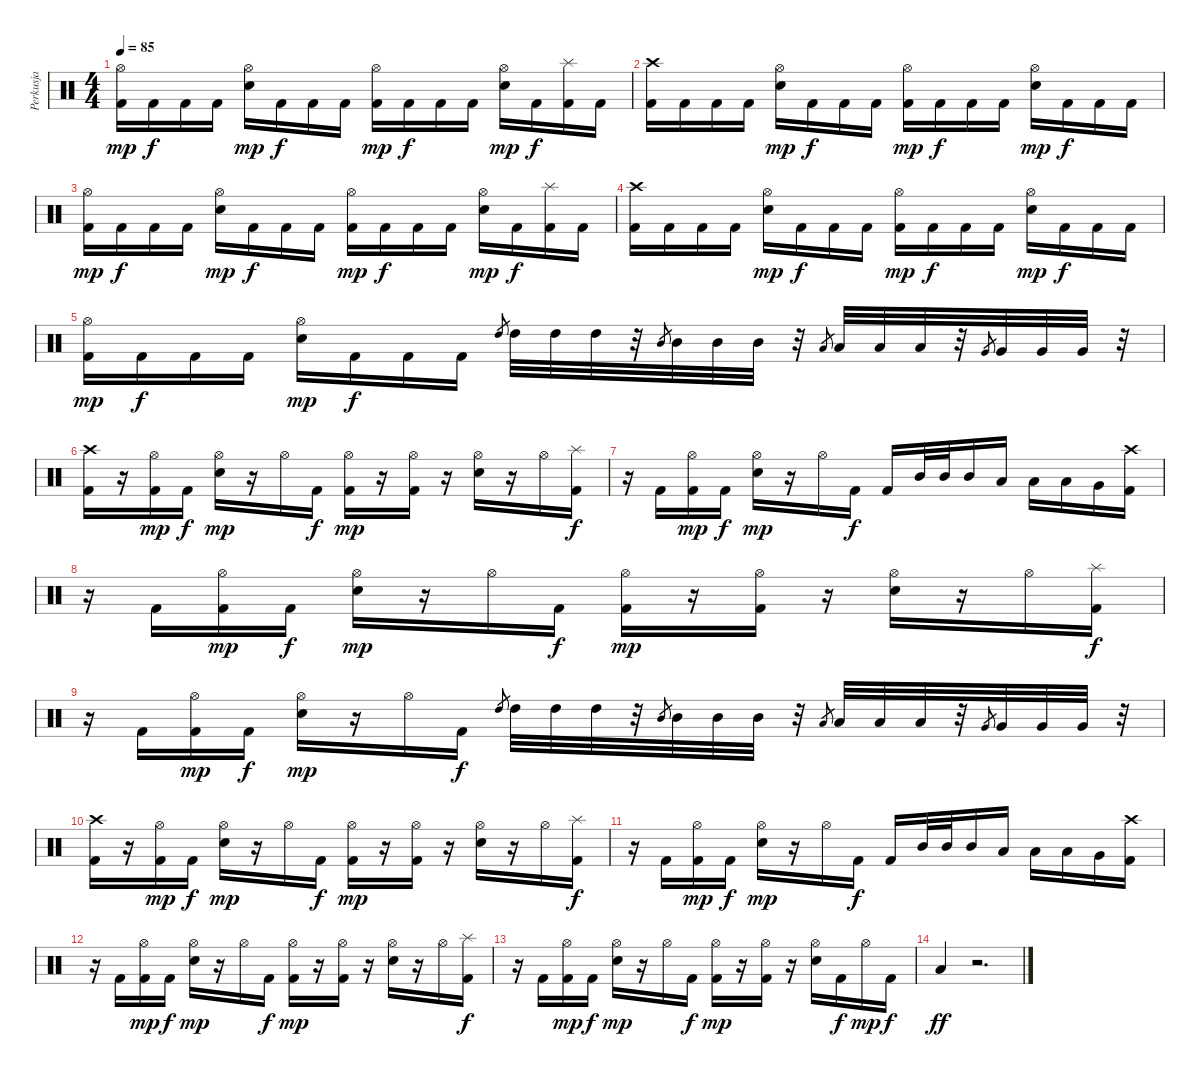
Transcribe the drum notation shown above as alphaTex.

\track ("Perkusja" "Perkusja") {instrument percussion}
\staff {score}
\articulation defaults
\ts (4 4)
\tempo 85
\clef neutral
\ks c
("Hi-Hat (open)" "Kick (hit) 2").16{dy mp} "Kick (hit) 2".16{dy f} "Kick (hit) 2".16 "Kick (hit) 2".16 ("Electric Snare (hit)" "Hi-Hat (open)").16{dy mp} "Kick (hit) 2".16{dy f} "Kick (hit) 2".16 "Kick (hit) 2".16 ("Hi-Hat (open)" "Kick (hit) 2").16{dy mp} "Kick (hit) 2".16{dy f} "Kick (hit) 2".16 "Kick (hit) 2".16 ("Electric Snare (hit)" "Hi-Hat (open)").16{dy mp} "Kick (hit) 2".16{dy f} ("Splash (hit)" "Kick (hit) 2").16 "Kick (hit) 2".16 |
("Crash high (hit)" "Kick (hit) 2").16 "Kick (hit) 2".16 "Kick (hit) 2".16 "Kick (hit) 2".16 ("Electric Snare (hit)" "Hi-Hat (open)").16{dy mp} "Kick (hit) 2".16{dy f} "Kick (hit) 2".16 "Kick (hit) 2".16 ("Hi-Hat (open)" "Kick (hit) 2").16{dy mp} "Kick (hit) 2".16{dy f} "Kick (hit) 2".16 "Kick (hit) 2".16 ("Electric Snare (hit)" "Hi-Hat (open)").16{dy mp} "Kick (hit) 2".16{dy f} "Kick (hit) 2".16 "Kick (hit) 2".16 |
("Hi-Hat (open)" "Kick (hit) 2").16{dy mp} "Kick (hit) 2".16{dy f} "Kick (hit) 2".16 "Kick (hit) 2".16 ("Electric Snare (hit)" "Hi-Hat (open)").16{dy mp} "Kick (hit) 2".16{dy f} "Kick (hit) 2".16 "Kick (hit) 2".16 ("Hi-Hat (open)" "Kick (hit) 2").16{dy mp} "Kick (hit) 2".16{dy f} "Kick (hit) 2".16 "Kick (hit) 2".16 ("Electric Snare (hit)" "Hi-Hat (open)").16{dy mp} "Kick (hit) 2".16{dy f} ("Splash (hit)" "Kick (hit) 2").16 "Kick (hit) 2".16 |
("Crash high (hit)" "Kick (hit) 2").16 "Kick (hit) 2".16 "Kick (hit) 2".16 "Kick (hit) 2".16 ("Electric Snare (hit)" "Hi-Hat (open)").16{dy mp} "Kick (hit) 2".16{dy f} "Kick (hit) 2".16 "Kick (hit) 2".16 ("Hi-Hat (open)" "Kick (hit) 2").16{dy mp} "Kick (hit) 2".16{dy f} "Kick (hit) 2".16 "Kick (hit) 2".16 ("Electric Snare (hit)" "Hi-Hat (open)").16{dy mp} "Kick (hit) 2".16{dy f} "Kick (hit) 2".16 "Kick (hit) 2".16 |
("Hi-Hat (open)" "Kick (hit) 2").16{dy mp} "Kick (hit) 2".16{dy f} "Kick (hit) 2".16 "Kick (hit) 2".16 ("Electric Snare (hit)" "Hi-Hat (open)").16{dy mp} "Kick (hit) 2".16{dy f} "Kick (hit) 2".16 "Kick (hit) 2".16 "High Tom (hit)".8{gr} "High Tom (hit)".32 "High Tom (hit)".32 "High Tom (hit)".32 r.32 "Mid Tom (hit)".8{gr} "Mid Tom (hit)".32 "Mid Tom (hit)".32 "Mid Tom (hit)".32 r.32 "Low Tom (hit)".8{gr} "Low Tom (hit)".32 "Low Tom (hit)".32 "Low Tom (hit)".32 r.32 "Very Low Tom (hit)".8{gr} "Very Low Tom (hit)".32 "Very Low Tom (hit)".32 "Very Low Tom (hit)".32 r.32 |
("Crash high (hit)" "Kick (hit) 2").16 r.16 ("Hi-Hat (open)" "Kick (hit) 2").16{dy mp} "Kick (hit) 2".16{dy f} ("Electric Snare (hit)" "Hi-Hat (open)").16{dy mp} r.16 "Hi-Hat (open)".16 "Kick (hit) 2".16{dy f} ("Hi-Hat (open)" "Kick (hit) 2").16{dy mp} r.16 ("Hi-Hat (open)" "Kick (hit) 2").16 r.16 ("Electric Snare (hit)" "Hi-Hat (open)").16 r.16 "Hi-Hat (open)".16 ("Splash (hit)" "Kick (hit) 2").16{dy f} |
r.16 "Kick (hit) 2".16 ("Hi-Hat (open)" "Kick (hit) 2").16{dy mp} "Kick (hit) 2".16{dy f} ("Electric Snare (hit)" "Hi-Hat (open)").16{dy mp} r.16 "Hi-Hat (open)".16 "Kick (hit) 2".16{dy f} "Kick (hit) 2".16 "Mid Tom (hit)".32 "Mid Tom (hit)".32 "Mid Tom (hit)".16 "Low Tom (hit)".16 "Low Tom (hit)".16 "Low Tom (hit)".16 "Very Low Tom (hit)".16 ("Crash high (hit)" "Kick (hit) 2").16 |
r.16 "Kick (hit) 2".16 ("Hi-Hat (open)" "Kick (hit) 2").16{dy mp} "Kick (hit) 2".16{dy f} ("Electric Snare (hit)" "Hi-Hat (open)").16{dy mp} r.16 "Hi-Hat (open)".16 "Kick (hit) 2".16{dy f} ("Hi-Hat (open)" "Kick (hit) 2").16{dy mp} r.16 ("Hi-Hat (open)" "Kick (hit) 2").16 r.16 ("Electric Snare (hit)" "Hi-Hat (open)").16 r.16 "Hi-Hat (open)".16 ("Splash (hit)" "Kick (hit) 2").16{dy f} |
r.16 "Kick (hit) 2".16 ("Hi-Hat (open)" "Kick (hit) 2").16{dy mp} "Kick (hit) 2".16{dy f} ("Electric Snare (hit)" "Hi-Hat (open)").16{dy mp} r.16 "Hi-Hat (open)".16 "Kick (hit) 2".16{dy f} "High Tom (hit)".8{gr} "High Tom (hit)".32 "High Tom (hit)".32 "High Tom (hit)".32 r.32 "Mid Tom (hit)".8{gr} "Mid Tom (hit)".32 "Mid Tom (hit)".32 "Mid Tom (hit)".32 r.32 "Low Tom (hit)".8{gr} "Low Tom (hit)".32 "Low Tom (hit)".32 "Low Tom (hit)".32 r.32 "Very Low Tom (hit)".8{gr} "Very Low Tom (hit)".32 "Very Low Tom (hit)".32 "Very Low Tom (hit)".32 r.32 |
("Crash high (hit)" "Kick (hit) 2").16 r.16 ("Hi-Hat (open)" "Kick (hit) 2").16{dy mp} "Kick (hit) 2".16{dy f} ("Electric Snare (hit)" "Hi-Hat (open)").16{dy mp} r.16 "Hi-Hat (open)".16 "Kick (hit) 2".16{dy f} ("Hi-Hat (open)" "Kick (hit) 2").16{dy mp} r.16 ("Hi-Hat (open)" "Kick (hit) 2").16 r.16 ("Electric Snare (hit)" "Hi-Hat (open)").16 r.16 "Hi-Hat (open)".16 ("Splash (hit)" "Kick (hit) 2").16{dy f} |
r.16 "Kick (hit) 2".16 ("Hi-Hat (open)" "Kick (hit) 2").16{dy mp} "Kick (hit) 2".16{dy f} ("Electric Snare (hit)" "Hi-Hat (open)").16{dy mp} r.16 "Hi-Hat (open)".16 "Kick (hit) 2".16{dy f} "Kick (hit) 2".16 "Mid Tom (hit)".32 "Mid Tom (hit)".32 "Mid Tom (hit)".16 "Low Tom (hit)".16 "Low Tom (hit)".16 "Low Tom (hit)".16 "Very Low Tom (hit)".16 ("Crash high (hit)" "Kick (hit) 2").16 |
r.16 "Kick (hit) 2".16 ("Hi-Hat (open)" "Kick (hit) 2").16{dy mp} "Kick (hit) 2".16{dy f} ("Electric Snare (hit)" "Hi-Hat (open)").16{dy mp} r.16 "Hi-Hat (open)".16 "Kick (hit) 2".16{dy f} ("Hi-Hat (open)" "Kick (hit) 2").16{dy mp} r.16 ("Hi-Hat (open)" "Kick (hit) 2").16 r.16 ("Electric Snare (hit)" "Hi-Hat (open)").16 r.16 "Hi-Hat (open)".16 ("Splash (hit)" "Kick (hit) 2").16{dy f} |
r.16 "Kick (hit) 2".16 ("Hi-Hat (open)" "Kick (hit) 2").16{dy mp} "Kick (hit) 2".16{dy f} ("Electric Snare (hit)" "Hi-Hat (open)").16{dy mp} r.16 "Hi-Hat (open)".16 "Kick (hit) 2".16{dy f} ("Hi-Hat (open)" "Kick (hit) 2").16{dy mp} r.16 ("Hi-Hat (open)" "Kick (hit) 2").16 r.16 ("Electric Snare (hit)" "Hi-Hat (open)").16 "Kick (hit) 2".16{dy f} "Hi-Hat (open)".16{dy mp} "Kick (hit) 2".16{dy f} |
"Low Floor Tom (hit)".4{dy ff} r.2{d}
